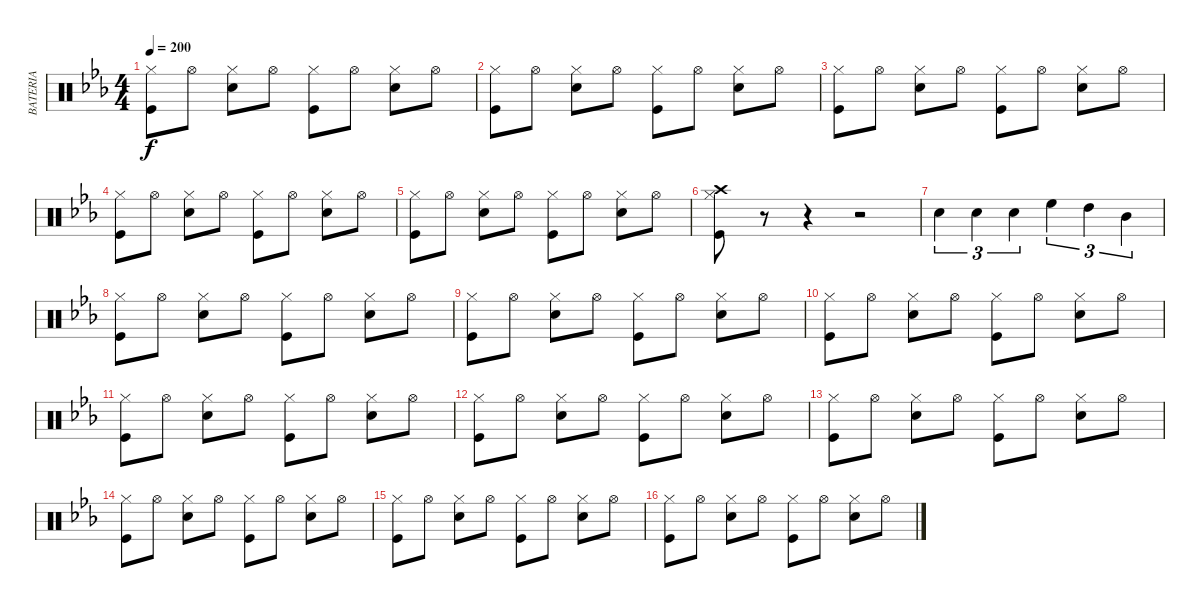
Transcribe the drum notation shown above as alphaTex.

\track ("BATERIA" "BATERIA") {instrument percussion}
\staff {score}
\articulation defaults
\ts (4 4)
\tempo 200
\clef neutral
\ks cminor
("Kick (hit)" "Hi-Hat (closed)").8{dy f} "Hi-Hat (open)".8 ("Hi-Hat (closed)" "Snare (hit) 2").8 "Hi-Hat (open)".8 ("Kick (hit)" "Hi-Hat (closed)").8 "Hi-Hat (open)".8 ("Hi-Hat (closed)" "Snare (hit) 2").8 "Hi-Hat (open)".8 |
("Kick (hit)" "Hi-Hat (closed)").8 "Hi-Hat (open)".8 ("Hi-Hat (closed)" "Snare (hit) 2").8 "Hi-Hat (open)".8 ("Kick (hit)" "Hi-Hat (closed)").8 "Hi-Hat (open)".8 ("Hi-Hat (closed)" "Snare (hit) 2").8 "Hi-Hat (open)".8 |
("Kick (hit)" "Hi-Hat (closed)").8 "Hi-Hat (open)".8 ("Hi-Hat (closed)" "Snare (hit) 2").8 "Hi-Hat (open)".8 ("Kick (hit)" "Hi-Hat (closed)").8 "Hi-Hat (open)".8 ("Hi-Hat (closed)" "Snare (hit) 2").8 "Hi-Hat (open)".8 |
("Kick (hit)" "Hi-Hat (closed)").8 "Hi-Hat (open)".8 ("Hi-Hat (closed)" "Snare (hit) 2").8 "Hi-Hat (open)".8 ("Kick (hit)" "Hi-Hat (closed)").8 "Hi-Hat (open)".8 ("Hi-Hat (closed)" "Snare (hit) 2").8 "Hi-Hat (open)".8 |
("Kick (hit)" "Hi-Hat (closed)").8 "Hi-Hat (open)".8 ("Hi-Hat (closed)" "Snare (hit) 2").8 "Hi-Hat (open)".8 ("Kick (hit)" "Hi-Hat (closed)").8 "Hi-Hat (open)".8 ("Hi-Hat (closed)" "Snare (hit) 2").8 "Hi-Hat (open)".8 |
("Kick (hit)" "Hi-Hat (closed)" "Crash high (hit)").8 r.8 r.4 r.2 |
"Snare (hit) 2".4{tu (3 2)} "Snare (hit) 2".4{tu (3 2)} "Snare (hit) 2".4{tu (3 2)} "High Floor Tom (hit)".4{tu (3 2)} "High Tom (hit)".4{tu (3 2)} "Mid Tom (hit)".4{tu (3 2)} |
("Kick (hit)" "Hi-Hat (closed)").8 "Hi-Hat (open)".8 ("Hi-Hat (closed)" "Snare (hit) 2").8 "Hi-Hat (open)".8 ("Kick (hit)" "Hi-Hat (closed)").8 "Hi-Hat (open)".8 ("Hi-Hat (closed)" "Snare (hit) 2").8 "Hi-Hat (open)".8 |
("Kick (hit)" "Hi-Hat (closed)").8 "Hi-Hat (open)".8 ("Hi-Hat (closed)" "Snare (hit) 2").8 "Hi-Hat (open)".8 ("Kick (hit)" "Hi-Hat (closed)").8 "Hi-Hat (open)".8 ("Hi-Hat (closed)" "Snare (hit) 2").8 "Hi-Hat (open)".8 |
("Kick (hit)" "Hi-Hat (closed)").8 "Hi-Hat (open)".8 ("Hi-Hat (closed)" "Snare (hit) 2").8 "Hi-Hat (open)".8 ("Kick (hit)" "Hi-Hat (closed)").8 "Hi-Hat (open)".8 ("Hi-Hat (closed)" "Snare (hit) 2").8 "Hi-Hat (open)".8 |
("Kick (hit)" "Hi-Hat (closed)").8 "Hi-Hat (open)".8 ("Hi-Hat (closed)" "Snare (hit) 2").8 "Hi-Hat (open)".8 ("Kick (hit)" "Hi-Hat (closed)").8 "Hi-Hat (open)".8 ("Hi-Hat (closed)" "Snare (hit) 2").8 "Hi-Hat (open)".8 |
("Kick (hit)" "Hi-Hat (closed)").8 "Hi-Hat (open)".8 ("Hi-Hat (closed)" "Snare (hit) 2").8 "Hi-Hat (open)".8 ("Kick (hit)" "Hi-Hat (closed)").8 "Hi-Hat (open)".8 ("Hi-Hat (closed)" "Snare (hit) 2").8 "Hi-Hat (open)".8 |
("Kick (hit)" "Hi-Hat (closed)").8 "Hi-Hat (open)".8 ("Hi-Hat (closed)" "Snare (hit) 2").8 "Hi-Hat (open)".8 ("Kick (hit)" "Hi-Hat (closed)").8 "Hi-Hat (open)".8 ("Hi-Hat (closed)" "Snare (hit) 2").8 "Hi-Hat (open)".8 |
("Kick (hit)" "Hi-Hat (closed)").8 "Hi-Hat (open)".8 ("Hi-Hat (closed)" "Snare (hit) 2").8 "Hi-Hat (open)".8 ("Kick (hit)" "Hi-Hat (closed)").8 "Hi-Hat (open)".8 ("Hi-Hat (closed)" "Snare (hit) 2").8 "Hi-Hat (open)".8 |
("Kick (hit)" "Hi-Hat (closed)").8 "Hi-Hat (open)".8 ("Hi-Hat (closed)" "Snare (hit) 2").8 "Hi-Hat (open)".8 ("Kick (hit)" "Hi-Hat (closed)").8 "Hi-Hat (open)".8 ("Hi-Hat (closed)" "Snare (hit) 2").8 "Hi-Hat (open)".8 |
("Kick (hit)" "Hi-Hat (closed)").8 "Hi-Hat (open)".8 ("Hi-Hat (closed)" "Snare (hit) 2").8 "Hi-Hat (open)".8 ("Kick (hit)" "Hi-Hat (closed)").8 "Hi-Hat (open)".8 ("Hi-Hat (closed)" "Snare (hit) 2").8 "Hi-Hat (open)".8
